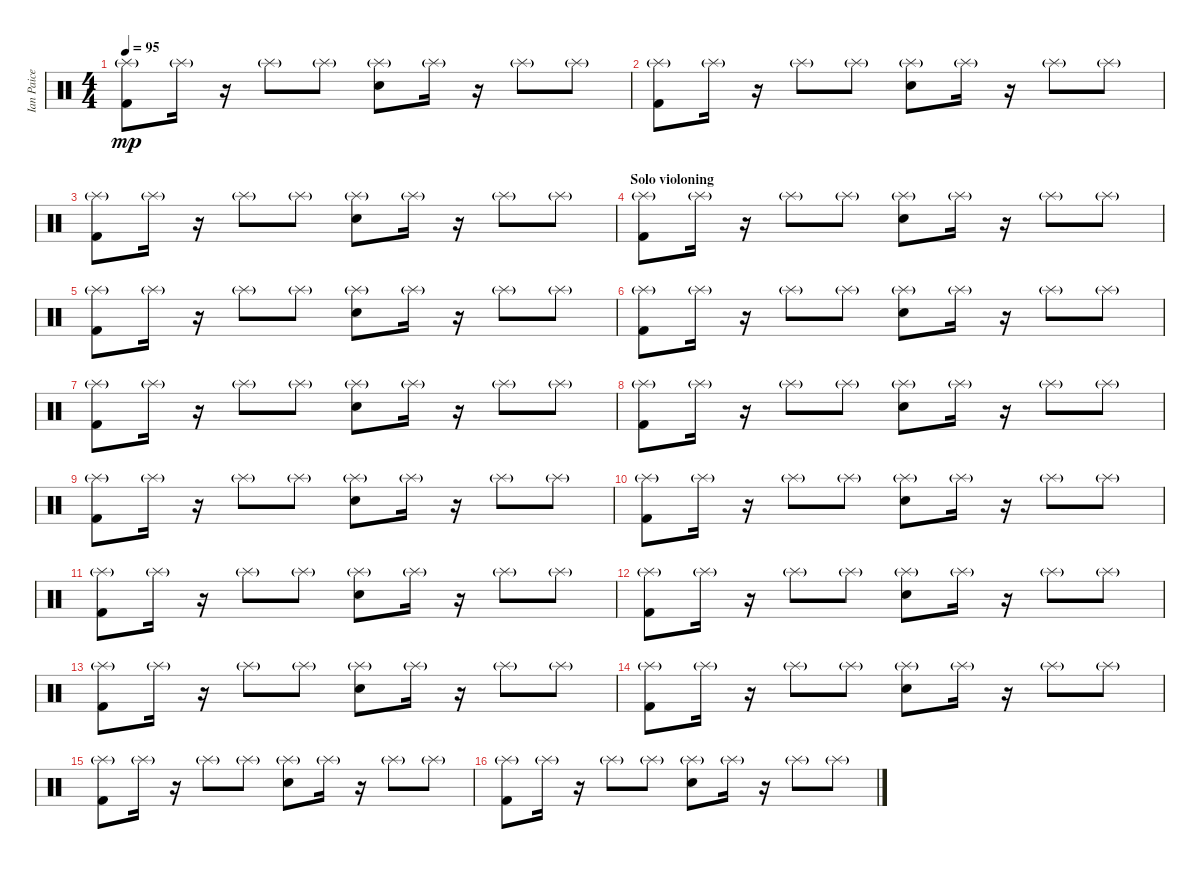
\track ("Ian Paice" "Ian Paice") {instrument percussion}
\staff {score}
\articulation defaults
\ts (4 4)
\tempo 95
\clef neutral
\ks c
("Splash (hit)"{g} "Kick (hit) 2").8{dy mp} "Splash (hit)"{g}.16 r.16 "Splash (hit)"{g}.8 "Splash (hit)"{g}.8 ("Splash (hit)"{g} "Snare (hit) 2").8 "Splash (hit)"{g}.16 r.16 "Splash (hit)"{g}.8 "Splash (hit)"{g}.8 |
("Splash (hit)"{g} "Kick (hit) 2").8 "Splash (hit)"{g}.16 r.16 "Splash (hit)"{g}.8 "Splash (hit)"{g}.8 ("Splash (hit)"{g} "Snare (hit) 2").8 "Splash (hit)"{g}.16 r.16 "Splash (hit)"{g}.8 "Splash (hit)"{g}.8 |
("Splash (hit)"{g} "Kick (hit) 2").8 "Splash (hit)"{g}.16 r.16 "Splash (hit)"{g}.8 "Splash (hit)"{g}.8 ("Splash (hit)"{g} "Snare (hit) 2").8 "Splash (hit)"{g}.16 r.16 "Splash (hit)"{g}.8 "Splash (hit)"{g}.8 |
\section ("" "Solo violoning")
("Splash (hit)"{g} "Kick (hit) 2").8 "Splash (hit)"{g}.16 r.16 "Splash (hit)"{g}.8 "Splash (hit)"{g}.8 ("Splash (hit)"{g} "Snare (hit) 2").8 "Splash (hit)"{g}.16 r.16 "Splash (hit)"{g}.8 "Splash (hit)"{g}.8 |
("Splash (hit)"{g} "Kick (hit) 2").8 "Splash (hit)"{g}.16 r.16 "Splash (hit)"{g}.8 "Splash (hit)"{g}.8 ("Splash (hit)"{g} "Snare (hit) 2").8 "Splash (hit)"{g}.16 r.16 "Splash (hit)"{g}.8 "Splash (hit)"{g}.8 |
("Splash (hit)"{g} "Kick (hit) 2").8 "Splash (hit)"{g}.16 r.16 "Splash (hit)"{g}.8 "Splash (hit)"{g}.8 ("Splash (hit)"{g} "Snare (hit) 2").8 "Splash (hit)"{g}.16 r.16 "Splash (hit)"{g}.8 "Splash (hit)"{g}.8 |
("Splash (hit)"{g} "Kick (hit) 2").8 "Splash (hit)"{g}.16 r.16 "Splash (hit)"{g}.8 "Splash (hit)"{g}.8 ("Splash (hit)"{g} "Snare (hit) 2").8 "Splash (hit)"{g}.16 r.16 "Splash (hit)"{g}.8 "Splash (hit)"{g}.8 |
("Splash (hit)"{g} "Kick (hit) 2").8 "Splash (hit)"{g}.16 r.16 "Splash (hit)"{g}.8 "Splash (hit)"{g}.8 ("Splash (hit)"{g} "Snare (hit) 2").8 "Splash (hit)"{g}.16 r.16 "Splash (hit)"{g}.8 "Splash (hit)"{g}.8 |
("Splash (hit)"{g} "Kick (hit) 2").8 "Splash (hit)"{g}.16 r.16 "Splash (hit)"{g}.8 "Splash (hit)"{g}.8 ("Splash (hit)"{g} "Snare (hit) 2").8 "Splash (hit)"{g}.16 r.16 "Splash (hit)"{g}.8 "Splash (hit)"{g}.8 |
("Splash (hit)"{g} "Kick (hit) 2").8 "Splash (hit)"{g}.16 r.16 "Splash (hit)"{g}.8 "Splash (hit)"{g}.8 ("Splash (hit)"{g} "Snare (hit) 2").8 "Splash (hit)"{g}.16 r.16 "Splash (hit)"{g}.8 "Splash (hit)"{g}.8 |
("Splash (hit)"{g} "Kick (hit) 2").8 "Splash (hit)"{g}.16 r.16 "Splash (hit)"{g}.8 "Splash (hit)"{g}.8 ("Splash (hit)"{g} "Snare (hit) 2").8 "Splash (hit)"{g}.16 r.16 "Splash (hit)"{g}.8 "Splash (hit)"{g}.8 |
("Splash (hit)"{g} "Kick (hit) 2").8 "Splash (hit)"{g}.16 r.16 "Splash (hit)"{g}.8 "Splash (hit)"{g}.8 ("Splash (hit)"{g} "Snare (hit) 2").8 "Splash (hit)"{g}.16 r.16 "Splash (hit)"{g}.8 "Splash (hit)"{g}.8 |
("Splash (hit)"{g} "Kick (hit) 2").8 "Splash (hit)"{g}.16 r.16 "Splash (hit)"{g}.8 "Splash (hit)"{g}.8 ("Splash (hit)"{g} "Snare (hit) 2").8 "Splash (hit)"{g}.16 r.16 "Splash (hit)"{g}.8 "Splash (hit)"{g}.8 |
("Splash (hit)"{g} "Kick (hit) 2").8 "Splash (hit)"{g}.16 r.16 "Splash (hit)"{g}.8 "Splash (hit)"{g}.8 ("Splash (hit)"{g} "Snare (hit) 2").8 "Splash (hit)"{g}.16 r.16 "Splash (hit)"{g}.8 "Splash (hit)"{g}.8 |
("Splash (hit)"{g} "Kick (hit) 2").8 "Splash (hit)"{g}.16 r.16 "Splash (hit)"{g}.8 "Splash (hit)"{g}.8 ("Splash (hit)"{g} "Snare (hit) 2").8 "Splash (hit)"{g}.16 r.16 "Splash (hit)"{g}.8 "Splash (hit)"{g}.8 |
("Splash (hit)"{g} "Kick (hit) 2").8 "Splash (hit)"{g}.16 r.16 "Splash (hit)"{g}.8 "Splash (hit)"{g}.8 ("Splash (hit)"{g} "Snare (hit) 2").8 "Splash (hit)"{g}.16 r.16 "Splash (hit)"{g}.8 "Splash (hit)"{g}.8
